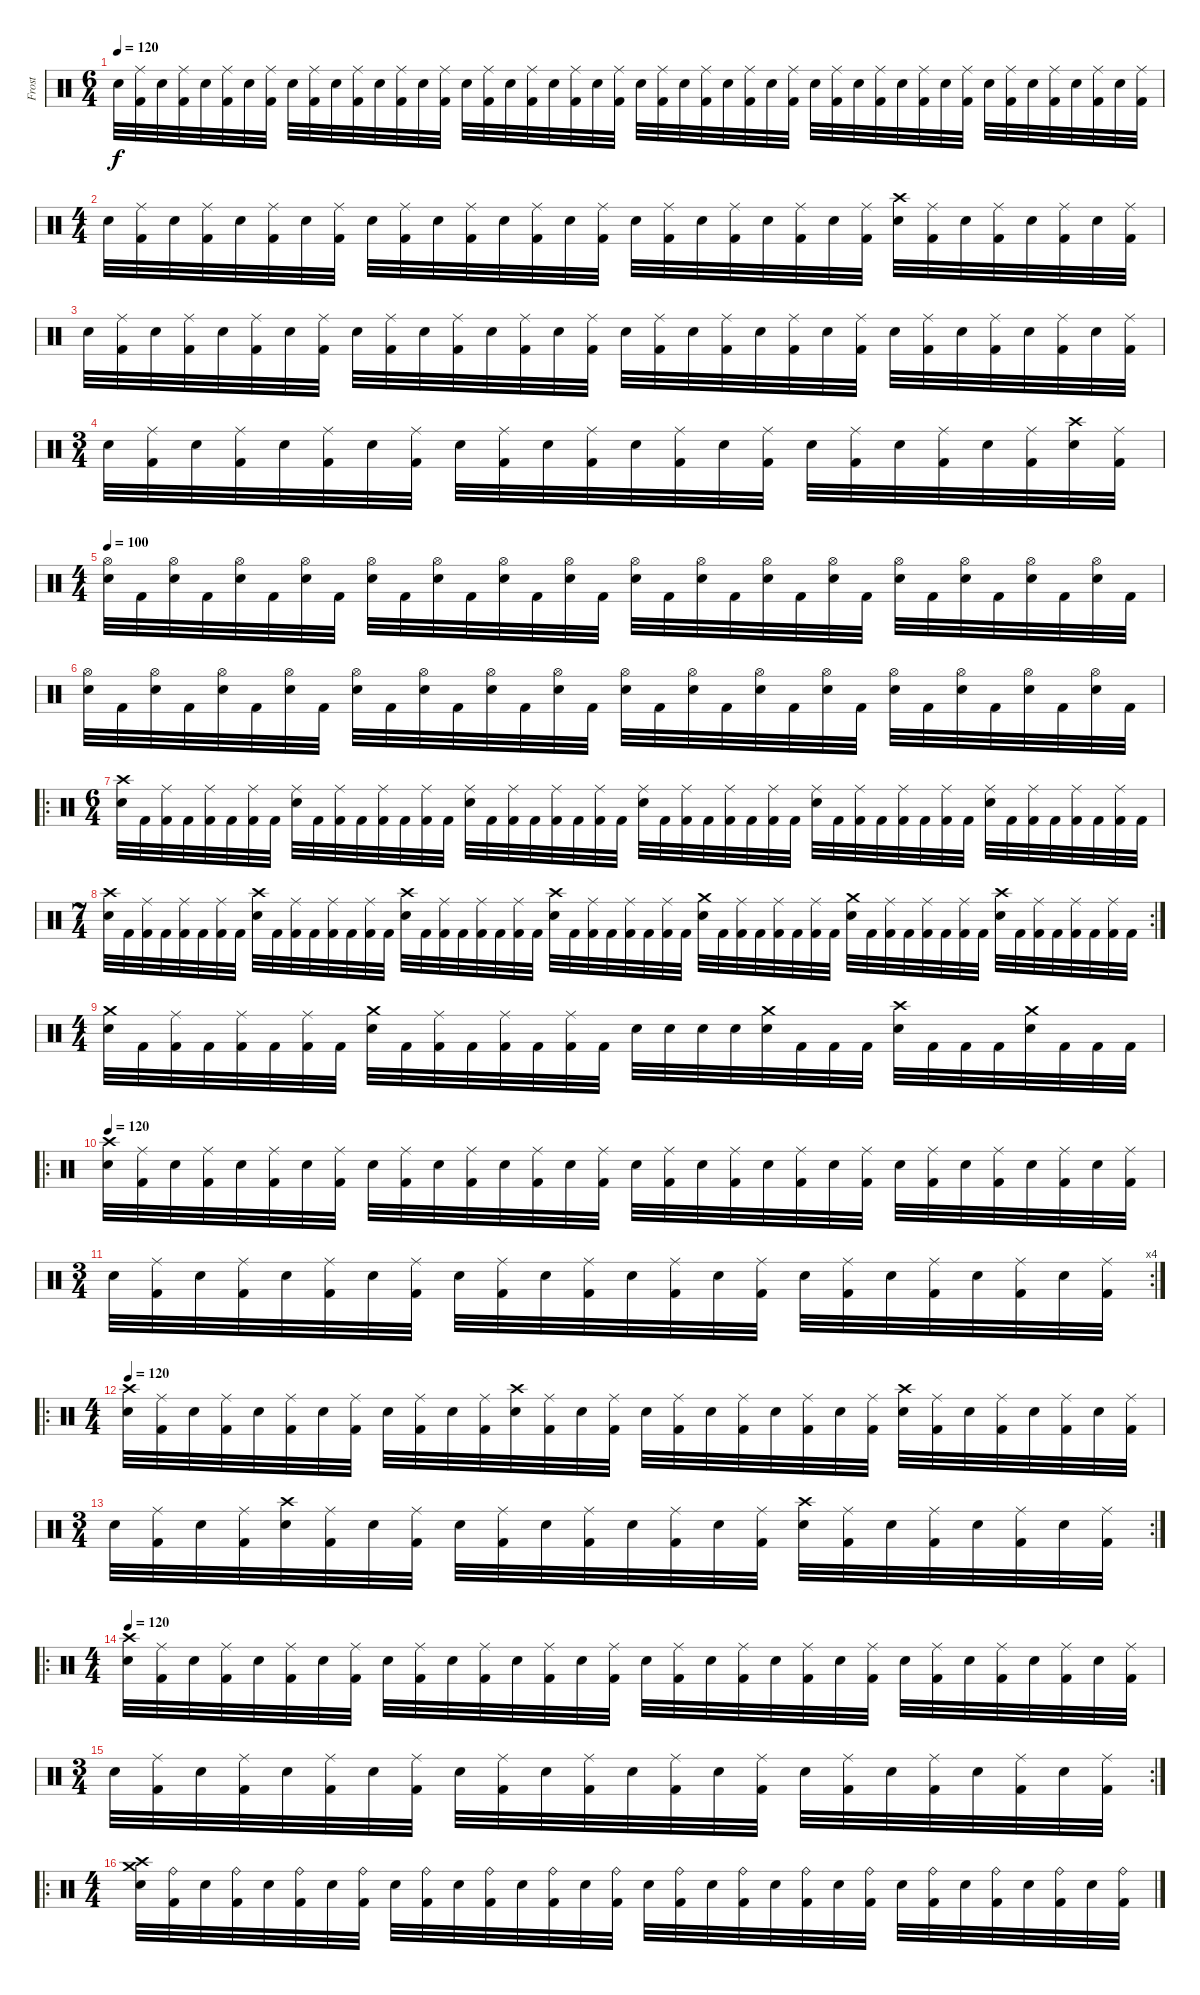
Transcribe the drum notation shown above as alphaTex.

\track ("Frost" "Frost") {instrument percussion}
\staff {score}
\articulation defaults
\ts (6 4)
\tempo 120
\clef neutral
\ks c "Snare (hit) 2".32{dy f}
("Ride (middle)" "Kick (hit) 2").32 "Snare (hit) 2".32 ("Ride (middle)" "Kick (hit) 2").32 "Snare (hit) 2".32 ("Ride (middle)" "Kick (hit) 2").32 "Snare (hit) 2".32 ("Ride (middle)" "Kick (hit) 2").32 "Snare (hit) 2".32 ("Ride (middle)" "Kick (hit) 2").32 "Snare (hit) 2".32 ("Ride (middle)" "Kick (hit) 2").32 "Snare (hit) 2".32 ("Ride (middle)" "Kick (hit) 2").32 "Snare (hit) 2".32 ("Ride (middle)" "Kick (hit) 2").32 "Snare (hit) 2".32 ("Ride (middle)" "Kick (hit) 2").32 "Snare (hit) 2".32 ("Ride (middle)" "Kick (hit) 2").32 "Snare (hit) 2".32 ("Ride (middle)" "Kick (hit) 2").32 "Snare (hit) 2".32 ("Ride (middle)" "Kick (hit) 2").32 "Snare (hit) 2".32 ("Ride (middle)" "Kick (hit) 2").32 "Snare (hit) 2".32 ("Ride (middle)" "Kick (hit) 2").32 "Snare (hit) 2".32 ("Ride (middle)" "Kick (hit) 2").32 "Snare (hit) 2".32 ("Ride (middle)" "Kick (hit) 2").32 "Snare (hit) 2".32 ("Ride (middle)" "Kick (hit) 2").32 "Snare (hit) 2".32 ("Ride (middle)" "Kick (hit) 2").32 "Snare (hit) 2".32 ("Ride (middle)" "Kick (hit) 2").32 "Snare (hit) 2".32 ("Ride (middle)" "Kick (hit) 2").32 "Snare (hit) 2".32 ("Ride (middle)" "Kick (hit) 2").32 "Snare (hit) 2".32 ("Ride (middle)" "Kick (hit) 2").32 "Snare (hit) 2".32 ("Ride (middle)" "Kick (hit) 2").32 "Snare (hit) 2".32 ("Ride (middle)" "Kick (hit) 2").32 |
\ts (4 4)
"Snare (hit) 2".32 ("Ride (middle)" "Kick (hit) 2").32 "Snare (hit) 2".32 ("Ride (middle)" "Kick (hit) 2").32 "Snare (hit) 2".32 ("Ride (middle)" "Kick (hit) 2").32 "Snare (hit) 2".32 ("Ride (middle)" "Kick (hit) 2").32 "Snare (hit) 2".32 ("Ride (middle)" "Kick (hit) 2").32 "Snare (hit) 2".32 ("Ride (middle)" "Kick (hit) 2").32 "Snare (hit) 2".32 ("Ride (middle)" "Kick (hit) 2").32 "Snare (hit) 2".32 ("Ride (middle)" "Kick (hit) 2").32 "Snare (hit) 2".32 ("Ride (middle)" "Kick (hit) 2").32 "Snare (hit) 2".32 ("Ride (middle)" "Kick (hit) 2").32 "Snare (hit) 2".32 ("Ride (middle)" "Kick (hit) 2").32 "Snare (hit) 2".32 ("Ride (middle)" "Kick (hit) 2").32 ("Crash high (hit)" "Snare (hit) 2").32 ("Ride (middle)" "Kick (hit) 2").32 "Snare (hit) 2".32 ("Ride (middle)" "Kick (hit) 2").32 "Snare (hit) 2".32 ("Ride (middle)" "Kick (hit) 2").32 "Snare (hit) 2".32 ("Ride (middle)" "Kick (hit) 2").32 |
"Snare (hit) 2".32 ("Ride (middle)" "Kick (hit) 2").32 "Snare (hit) 2".32 ("Ride (middle)" "Kick (hit) 2").32 "Snare (hit) 2".32 ("Ride (middle)" "Kick (hit) 2").32 "Snare (hit) 2".32 ("Ride (middle)" "Kick (hit) 2").32 "Snare (hit) 2".32 ("Ride (middle)" "Kick (hit) 2").32 "Snare (hit) 2".32 ("Ride (middle)" "Kick (hit) 2").32 "Snare (hit) 2".32 ("Ride (middle)" "Kick (hit) 2").32 "Snare (hit) 2".32 ("Ride (middle)" "Kick (hit) 2").32 "Snare (hit) 2".32 ("Ride (middle)" "Kick (hit) 2").32 "Snare (hit) 2".32 ("Ride (middle)" "Kick (hit) 2").32 "Snare (hit) 2".32 ("Ride (middle)" "Kick (hit) 2").32 "Snare (hit) 2".32 ("Ride (middle)" "Kick (hit) 2").32 "Snare (hit) 2".32 ("Ride (middle)" "Kick (hit) 2").32 "Snare (hit) 2".32 ("Ride (middle)" "Kick (hit) 2").32 "Snare (hit) 2".32 ("Ride (middle)" "Kick (hit) 2").32 "Snare (hit) 2".32 ("Ride (middle)" "Kick (hit) 2").32 |
\ts (3 4)
"Snare (hit) 2".32 ("Ride (middle)" "Kick (hit) 2").32 "Snare (hit) 2".32 ("Ride (middle)" "Kick (hit) 2").32 "Snare (hit) 2".32 ("Ride (middle)" "Kick (hit) 2").32 "Snare (hit) 2".32 ("Ride (middle)" "Kick (hit) 2").32 "Snare (hit) 2".32 ("Ride (middle)" "Kick (hit) 2").32 "Snare (hit) 2".32 ("Ride (middle)" "Kick (hit) 2").32 "Snare (hit) 2".32 ("Ride (middle)" "Kick (hit) 2").32 "Snare (hit) 2".32 ("Ride (middle)" "Kick (hit) 2").32 "Snare (hit) 2".32 ("Ride (middle)" "Kick (hit) 2").32 "Snare (hit) 2".32 ("Ride (middle)" "Kick (hit) 2").32 "Snare (hit) 2".32 ("Ride (middle)" "Kick (hit) 2").32 ("Crash high (hit)" "Snare (hit) 2").32 ("Ride (middle)" "Kick (hit) 2").32 |
\ts (4 4)
\tempo 100
("Hi-Hat (open)" "Snare (hit) 2").32 "Kick (hit) 2".32 ("Hi-Hat (open)" "Snare (hit) 2").32 "Kick (hit) 2".32 ("Hi-Hat (open)" "Snare (hit) 2").32 "Kick (hit) 2".32 ("Hi-Hat (open)" "Snare (hit) 2").32 "Kick (hit) 2".32 ("Hi-Hat (open)" "Snare (hit) 2").32 "Kick (hit) 2".32 ("Hi-Hat (open)" "Snare (hit) 2").32 "Kick (hit) 2".32 ("Hi-Hat (open)" "Snare (hit) 2").32 "Kick (hit) 2".32 ("Hi-Hat (open)" "Snare (hit) 2").32 "Kick (hit) 2".32 ("Hi-Hat (open)" "Snare (hit) 2").32 "Kick (hit) 2".32 ("Hi-Hat (open)" "Snare (hit) 2").32 "Kick (hit) 2".32 ("Hi-Hat (open)" "Snare (hit) 2").32 "Kick (hit) 2".32 ("Hi-Hat (open)" "Snare (hit) 2").32 "Kick (hit) 2".32 ("Hi-Hat (open)" "Snare (hit) 2").32 "Kick (hit) 2".32 ("Hi-Hat (open)" "Snare (hit) 2").32 "Kick (hit) 2".32 ("Hi-Hat (open)" "Snare (hit) 2").32 "Kick (hit) 2".32 ("Hi-Hat (open)" "Snare (hit) 2").32 "Kick (hit) 2".32 |
("Hi-Hat (open)" "Snare (hit) 2").32 "Kick (hit) 2".32 ("Hi-Hat (open)" "Snare (hit) 2").32 "Kick (hit) 2".32 ("Hi-Hat (open)" "Snare (hit) 2").32 "Kick (hit) 2".32 ("Hi-Hat (open)" "Snare (hit) 2").32 "Kick (hit) 2".32 ("Hi-Hat (open)" "Snare (hit) 2").32 "Kick (hit) 2".32 ("Hi-Hat (open)" "Snare (hit) 2").32 "Kick (hit) 2".32 ("Hi-Hat (open)" "Snare (hit) 2").32 "Kick (hit) 2".32 ("Hi-Hat (open)" "Snare (hit) 2").32 "Kick (hit) 2".32 ("Hi-Hat (open)" "Snare (hit) 2").32 "Kick (hit) 2".32 ("Hi-Hat (open)" "Snare (hit) 2").32 "Kick (hit) 2".32 ("Hi-Hat (open)" "Snare (hit) 2").32 "Kick (hit) 2".32 ("Hi-Hat (open)" "Snare (hit) 2").32 "Kick (hit) 2".32 ("Hi-Hat (open)" "Snare (hit) 2").32 "Kick (hit) 2".32 ("Hi-Hat (open)" "Snare (hit) 2").32 "Kick (hit) 2".32 ("Hi-Hat (open)" "Snare (hit) 2").32 "Kick (hit) 2".32 ("Hi-Hat (open)" "Snare (hit) 2").32 "Kick (hit) 2".32 |
\ro
\ts (6 4)
("Crash high (hit)" "Snare (hit) 2").32 "Kick (hit) 2".32 ("Ride (middle)" "Kick (hit) 2").32 "Kick (hit) 2".32 ("Ride (middle)" "Kick (hit) 2").32 "Kick (hit) 2".32 ("Ride (middle)" "Kick (hit) 2").32 "Kick (hit) 2".32 ("Ride (middle)" "Snare (hit) 2").32 "Kick (hit) 2".32 ("Ride (middle)" "Kick (hit) 2").32 "Kick (hit) 2".32 ("Ride (middle)" "Kick (hit) 2").32 "Kick (hit) 2".32 ("Ride (middle)" "Kick (hit) 2").32 "Kick (hit) 2".32 ("Ride (middle)" "Snare (hit) 2").32 "Kick (hit) 2".32 ("Ride (middle)" "Kick (hit) 2").32 "Kick (hit) 2".32 ("Ride (middle)" "Kick (hit) 2").32 "Kick (hit) 2".32 ("Ride (middle)" "Kick (hit) 2").32 "Kick (hit) 2".32 ("Ride (middle)" "Snare (hit) 2").32 "Kick (hit) 2".32 ("Ride (middle)" "Kick (hit) 2").32 "Kick (hit) 2".32 ("Ride (middle)" "Kick (hit) 2").32 "Kick (hit) 2".32 ("Ride (middle)" "Kick (hit) 2").32 "Kick (hit) 2".32 ("Ride (middle)" "Snare (hit) 2").32 "Kick (hit) 2".32 ("Ride (middle)" "Kick (hit) 2").32 "Kick (hit) 2".32 ("Ride (middle)" "Kick (hit) 2").32 "Kick (hit) 2".32 ("Ride (middle)" "Kick (hit) 2").32 "Kick (hit) 2".32 ("Ride (middle)" "Snare (hit) 2").32 "Kick (hit) 2".32 ("Ride (middle)" "Kick (hit) 2").32 "Kick (hit) 2".32 ("Ride (middle)" "Kick (hit) 2").32 "Kick (hit) 2".32 ("Ride (middle)" "Kick (hit) 2").32 "Kick (hit) 2".32 |
\rc 2
\ts (7 4)
("Crash high (hit)" "Snare (hit) 2").32 "Kick (hit) 2".32 ("Ride (middle)" "Kick (hit) 2").32 "Kick (hit) 2".32 ("Ride (middle)" "Kick (hit) 2").32 "Kick (hit) 2".32 ("Ride (middle)" "Kick (hit) 2").32 "Kick (hit) 2".32 ("Crash high (hit)" "Snare (hit) 2").32 "Kick (hit) 2".32 ("Ride (middle)" "Kick (hit) 2").32 "Kick (hit) 2".32 ("Ride (middle)" "Kick (hit) 2").32 "Kick (hit) 2".32 ("Ride (middle)" "Kick (hit) 2").32 "Kick (hit) 2".32 ("Crash high (hit)" "Snare (hit) 2").32 "Kick (hit) 2".32 ("Ride (middle)" "Kick (hit) 2").32 "Kick (hit) 2".32 ("Ride (middle)" "Kick (hit) 2").32 "Kick (hit) 2".32 ("Ride (middle)" "Kick (hit) 2").32 "Kick (hit) 2".32 ("Crash high (hit)" "Snare (hit) 2").32 "Kick (hit) 2".32 ("Ride (middle)" "Kick (hit) 2").32 "Kick (hit) 2".32 ("Ride (middle)" "Kick (hit) 2").32 "Kick (hit) 2".32 ("Ride (middle)" "Kick (hit) 2").32 "Kick (hit) 2".32 ("Crash medium (hit)" "Snare (hit) 2").32 "Kick (hit) 2".32 ("Ride (middle)" "Kick (hit) 2").32 "Kick (hit) 2".32 ("Ride (middle)" "Kick (hit) 2").32 "Kick (hit) 2".32 ("Ride (middle)" "Kick (hit) 2").32 "Kick (hit) 2".32 ("Crash medium (hit)" "Snare (hit) 2").32 "Kick (hit) 2".32 ("Ride (middle)" "Kick (hit) 2").32 "Kick (hit) 2".32 ("Ride (middle)" "Kick (hit) 2").32 "Kick (hit) 2".32 ("Ride (middle)" "Kick (hit) 2").32 "Kick (hit) 2".32 ("Crash high (hit)" "Snare (hit) 2").32 "Kick (hit) 2".32 ("Ride (middle)" "Kick (hit) 2").32 "Kick (hit) 2".32 ("Ride (middle)" "Kick (hit) 2").32 "Kick (hit) 2".32 ("Ride (middle)" "Kick (hit) 2").32 "Kick (hit) 2".32 |
\ts (4 4)
("Crash medium (hit)" "Snare (hit) 2").32 "Kick (hit) 2".32 ("Ride (middle)" "Kick (hit) 2").32 "Kick (hit) 2".32 ("Ride (middle)" "Kick (hit) 2").32 "Kick (hit) 2".32 ("Ride (middle)" "Kick (hit) 2").32 "Kick (hit) 2".32 ("Crash medium (hit)" "Snare (hit) 2").32 "Kick (hit) 2".32 ("Ride (middle)" "Kick (hit) 2").32 "Kick (hit) 2".32 ("Ride (middle)" "Kick (hit) 2").32 "Kick (hit) 2".32 ("Ride (middle)" "Kick (hit) 2").32 "Kick (hit) 2".32 "Snare (hit) 2".32 "Snare (hit) 2".32 "Snare (hit) 2".32 "Snare (hit) 2".32 ("Crash medium (hit)" "Snare (hit) 2").32 "Kick (hit) 2".32 "Kick (hit) 2".32 "Kick (hit) 2".32 ("Crash high (hit)" "Snare (hit) 2").32 "Kick (hit) 2".32 "Kick (hit) 2".32 "Kick (hit) 2".32 ("Crash medium (hit)" "Snare (hit) 2").32 "Kick (hit) 2".32 "Kick (hit) 2".32 "Kick (hit) 2".32 |
\ro
\tempo 120
("Crash high (hit)" "Snare (hit) 2").32 ("Ride (middle)" "Kick (hit) 2").32 "Snare (hit) 2".32 ("Ride (middle)" "Kick (hit) 2").32 "Snare (hit) 2".32 ("Ride (middle)" "Kick (hit) 2").32 "Snare (hit) 2".32 ("Ride (middle)" "Kick (hit) 2").32 "Snare (hit) 2".32 ("Ride (middle)" "Kick (hit) 2").32 "Snare (hit) 2".32 ("Ride (middle)" "Kick (hit) 2").32 "Snare (hit) 2".32 ("Ride (middle)" "Kick (hit) 2").32 "Snare (hit) 2".32 ("Ride (middle)" "Kick (hit) 2").32 "Snare (hit) 2".32 ("Ride (middle)" "Kick (hit) 2").32 "Snare (hit) 2".32 ("Ride (middle)" "Kick (hit) 2").32 "Snare (hit) 2".32 ("Ride (middle)" "Kick (hit) 2").32 "Snare (hit) 2".32 ("Ride (middle)" "Kick (hit) 2").32 "Snare (hit) 2".32 ("Ride (middle)" "Kick (hit) 2").32 "Snare (hit) 2".32 ("Ride (middle)" "Kick (hit) 2").32 "Snare (hit) 2".32 ("Ride (middle)" "Kick (hit) 2").32 "Snare (hit) 2".32 ("Ride (middle)" "Kick (hit) 2").32 |
\rc 4
\ts (3 4)
"Snare (hit) 2".32 ("Ride (middle)" "Kick (hit) 2").32 "Snare (hit) 2".32 ("Ride (middle)" "Kick (hit) 2").32 "Snare (hit) 2".32 ("Ride (middle)" "Kick (hit) 2").32 "Snare (hit) 2".32 ("Ride (middle)" "Kick (hit) 2").32 "Snare (hit) 2".32 ("Ride (middle)" "Kick (hit) 2").32 "Snare (hit) 2".32 ("Ride (middle)" "Kick (hit) 2").32 "Snare (hit) 2".32 ("Ride (middle)" "Kick (hit) 2").32 "Snare (hit) 2".32 ("Ride (middle)" "Kick (hit) 2").32 "Snare (hit) 2".32 ("Ride (middle)" "Kick (hit) 2").32 "Snare (hit) 2".32 ("Ride (middle)" "Kick (hit) 2").32 "Snare (hit) 2".32 ("Ride (middle)" "Kick (hit) 2").32 "Snare (hit) 2".32 ("Ride (middle)" "Kick (hit) 2").32 |
\ro
\ts (4 4)
\tempo 120
("Crash high (hit)" "Snare (hit) 2").32 ("Ride (middle)" "Kick (hit) 2").32 "Snare (hit) 2".32 ("Ride (middle)" "Kick (hit) 2").32 "Snare (hit) 2".32 ("Ride (middle)" "Kick (hit) 2").32 "Snare (hit) 2".32 ("Ride (middle)" "Kick (hit) 2").32 "Snare (hit) 2".32 ("Ride (middle)" "Kick (hit) 2").32 "Snare (hit) 2".32 ("Ride (middle)" "Kick (hit) 2").32 ("Crash high (hit)" "Snare (hit) 2").32 ("Ride (middle)" "Kick (hit) 2").32 "Snare (hit) 2".32 ("Ride (middle)" "Kick (hit) 2").32 "Snare (hit) 2".32 ("Ride (middle)" "Kick (hit) 2").32 "Snare (hit) 2".32 ("Ride (middle)" "Kick (hit) 2").32 "Snare (hit) 2".32 ("Ride (middle)" "Kick (hit) 2").32 "Snare (hit) 2".32 ("Ride (middle)" "Kick (hit) 2").32 ("Crash high (hit)" "Snare (hit) 2").32 ("Ride (middle)" "Kick (hit) 2").32 "Snare (hit) 2".32 ("Ride (middle)" "Kick (hit) 2").32 "Snare (hit) 2".32 ("Ride (middle)" "Kick (hit) 2").32 "Snare (hit) 2".32 ("Ride (middle)" "Kick (hit) 2").32 |
\rc 2
\ts (3 4)
"Snare (hit) 2".32 ("Ride (middle)" "Kick (hit) 2").32 "Snare (hit) 2".32 ("Ride (middle)" "Kick (hit) 2").32 ("Crash high (hit)" "Snare (hit) 2").32 ("Ride (middle)" "Kick (hit) 2").32 "Snare (hit) 2".32 ("Ride (middle)" "Kick (hit) 2").32 "Snare (hit) 2".32 ("Ride (middle)" "Kick (hit) 2").32 "Snare (hit) 2".32 ("Ride (middle)" "Kick (hit) 2").32 "Snare (hit) 2".32 ("Ride (middle)" "Kick (hit) 2").32 "Snare (hit) 2".32 ("Ride (middle)" "Kick (hit) 2").32 ("Crash high (hit)" "Snare (hit) 2").32 ("Ride (middle)" "Kick (hit) 2").32 "Snare (hit) 2".32 ("Ride (middle)" "Kick (hit) 2").32 "Snare (hit) 2".32 ("Ride (middle)" "Kick (hit) 2").32 "Snare (hit) 2".32 ("Ride (middle)" "Kick (hit) 2").32 |
\ro
\ts (4 4)
\tempo 120
("Crash high (hit)" "Snare (hit) 2").32 ("Ride (middle)" "Kick (hit) 2").32 "Snare (hit) 2".32 ("Ride (middle)" "Kick (hit) 2").32 "Snare (hit) 2".32 ("Ride (middle)" "Kick (hit) 2").32 "Snare (hit) 2".32 ("Ride (middle)" "Kick (hit) 2").32 "Snare (hit) 2".32 ("Ride (middle)" "Kick (hit) 2").32 "Snare (hit) 2".32 ("Ride (middle)" "Kick (hit) 2").32 "Snare (hit) 2".32 ("Ride (middle)" "Kick (hit) 2").32 "Snare (hit) 2".32 ("Ride (middle)" "Kick (hit) 2").32 "Snare (hit) 2".32 ("Ride (middle)" "Kick (hit) 2").32 "Snare (hit) 2".32 ("Ride (middle)" "Kick (hit) 2").32 "Snare (hit) 2".32 ("Ride (middle)" "Kick (hit) 2").32 "Snare (hit) 2".32 ("Ride (middle)" "Kick (hit) 2").32 "Snare (hit) 2".32 ("Ride (middle)" "Kick (hit) 2").32 "Snare (hit) 2".32 ("Ride (middle)" "Kick (hit) 2").32 "Snare (hit) 2".32 ("Ride (middle)" "Kick (hit) 2").32 "Snare (hit) 2".32 ("Ride (middle)" "Kick (hit) 2").32 |
\rc 2
\ts (3 4)
"Snare (hit) 2".32 ("Ride (middle)" "Kick (hit) 2").32 "Snare (hit) 2".32 ("Ride (middle)" "Kick (hit) 2").32 "Snare (hit) 2".32 ("Ride (middle)" "Kick (hit) 2").32 "Snare (hit) 2".32 ("Ride (middle)" "Kick (hit) 2").32 "Snare (hit) 2".32 ("Ride (middle)" "Kick (hit) 2").32 "Snare (hit) 2".32 ("Ride (middle)" "Kick (hit) 2").32 "Snare (hit) 2".32 ("Ride (middle)" "Kick (hit) 2").32 "Snare (hit) 2".32 ("Ride (middle)" "Kick (hit) 2").32 "Snare (hit) 2".32 ("Ride (middle)" "Kick (hit) 2").32 "Snare (hit) 2".32 ("Ride (middle)" "Kick (hit) 2").32 "Snare (hit) 2".32 ("Ride (middle)" "Kick (hit) 2").32 "Snare (hit) 2".32 ("Ride (middle)" "Kick (hit) 2").32 |
\ro
\ts (4 4)
("Crash high (hit)" "Crash medium (hit)" "Snare (hit) 2").32 ("Ride (bell)" "Kick (hit) 2").32 "Snare (hit) 2".32 ("Ride (bell)" "Kick (hit) 2").32 "Snare (hit) 2".32 ("Ride (bell)" "Kick (hit) 2").32 "Snare (hit) 2".32 ("Ride (bell)" "Kick (hit) 2").32 "Snare (hit) 2".32 ("Ride (bell)" "Kick (hit) 2").32 "Snare (hit) 2".32 ("Ride (bell)" "Kick (hit) 2").32 "Snare (hit) 2".32 ("Ride (bell)" "Kick (hit) 2").32 "Snare (hit) 2".32 ("Ride (bell)" "Kick (hit) 2").32 "Snare (hit) 2".32 ("Ride (bell)" "Kick (hit) 2").32 "Snare (hit) 2".32 ("Ride (bell)" "Kick (hit) 2").32 "Snare (hit) 2".32 ("Ride (bell)" "Kick (hit) 2").32 "Snare (hit) 2".32 ("Ride (bell)" "Kick (hit) 2").32 "Snare (hit) 2".32 ("Ride (bell)" "Kick (hit) 2").32 "Snare (hit) 2".32 ("Ride (bell)" "Kick (hit) 2").32 "Snare (hit) 2".32 ("Ride (bell)" "Kick (hit) 2").32 "Snare (hit) 2".32 ("Ride (bell)" "Kick (hit) 2").32
